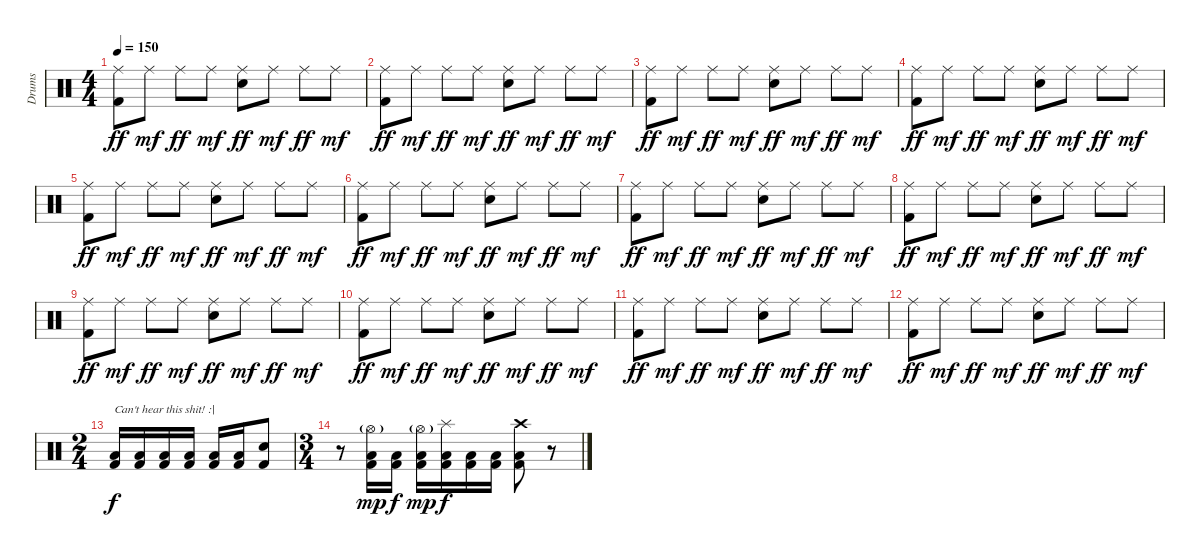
\track ("Drums" "Drums") {instrument percussion}
\staff {score}
\articulation defaults
\ts (4 4)
\tempo 150
\clef neutral
\ks c
("Ride (middle)" "Kick (hit) 2").8{dy ff} "Ride (middle)".8{dy mf} "Ride (middle)".8{dy ff} "Ride (middle)".8{dy mf} ("Ride (middle)" "Electric Snare (hit)").8{dy ff} "Ride (middle)".8{dy mf} "Ride (middle)".8{dy ff} "Ride (middle)".8{dy mf} |
("Ride (middle)" "Kick (hit) 2").8{dy ff} "Ride (middle)".8{dy mf} "Ride (middle)".8{dy ff} "Ride (middle)".8{dy mf} ("Ride (middle)" "Electric Snare (hit)").8{dy ff} "Ride (middle)".8{dy mf} "Ride (middle)".8{dy ff} "Ride (middle)".8{dy mf} |
("Ride (middle)" "Kick (hit) 2").8{dy ff} "Ride (middle)".8{dy mf} "Ride (middle)".8{dy ff} "Ride (middle)".8{dy mf} ("Ride (middle)" "Electric Snare (hit)").8{dy ff} "Ride (middle)".8{dy mf} "Ride (middle)".8{dy ff} "Ride (middle)".8{dy mf} |
("Ride (middle)" "Kick (hit) 2").8{dy ff} "Ride (middle)".8{dy mf} "Ride (middle)".8{dy ff} "Ride (middle)".8{dy mf} ("Ride (middle)" "Electric Snare (hit)").8{dy ff} "Ride (middle)".8{dy mf} "Ride (middle)".8{dy ff} "Ride (middle)".8{dy mf} |
("Ride (middle)" "Kick (hit) 2").8{dy ff} "Ride (middle)".8{dy mf} "Ride (middle)".8{dy ff} "Ride (middle)".8{dy mf} ("Ride (middle)" "Electric Snare (hit)").8{dy ff} "Ride (middle)".8{dy mf} "Ride (middle)".8{dy ff} "Ride (middle)".8{dy mf} |
("Ride (middle)" "Kick (hit) 2").8{dy ff} "Ride (middle)".8{dy mf} "Ride (middle)".8{dy ff} "Ride (middle)".8{dy mf} ("Ride (middle)" "Electric Snare (hit)").8{dy ff} "Ride (middle)".8{dy mf} "Ride (middle)".8{dy ff} "Ride (middle)".8{dy mf} |
("Ride (middle)" "Kick (hit) 2").8{dy ff} "Ride (middle)".8{dy mf} "Ride (middle)".8{dy ff} "Ride (middle)".8{dy mf} ("Ride (middle)" "Electric Snare (hit)").8{dy ff} "Ride (middle)".8{dy mf} "Ride (middle)".8{dy ff} "Ride (middle)".8{dy mf} |
("Ride (middle)" "Kick (hit) 2").8{dy ff} "Ride (middle)".8{dy mf} "Ride (middle)".8{dy ff} "Ride (middle)".8{dy mf} ("Ride (middle)" "Electric Snare (hit)").8{dy ff} "Ride (middle)".8{dy mf} "Ride (middle)".8{dy ff} "Ride (middle)".8{dy mf} |
("Ride (middle)" "Kick (hit) 2").8{dy ff} "Ride (middle)".8{dy mf} "Ride (middle)".8{dy ff} "Ride (middle)".8{dy mf} ("Ride (middle)" "Electric Snare (hit)").8{dy ff} "Ride (middle)".8{dy mf} "Ride (middle)".8{dy ff} "Ride (middle)".8{dy mf} |
("Ride (middle)" "Kick (hit) 2").8{dy ff} "Ride (middle)".8{dy mf} "Ride (middle)".8{dy ff} "Ride (middle)".8{dy mf} ("Ride (middle)" "Electric Snare (hit)").8{dy ff} "Ride (middle)".8{dy mf} "Ride (middle)".8{dy ff} "Ride (middle)".8{dy mf} |
("Ride (middle)" "Kick (hit) 2").8{dy ff} "Ride (middle)".8{dy mf} "Ride (middle)".8{dy ff} "Ride (middle)".8{dy mf} ("Ride (middle)" "Electric Snare (hit)").8{dy ff} "Ride (middle)".8{dy mf} "Ride (middle)".8{dy ff} "Ride (middle)".8{dy mf} |
("Ride (middle)" "Kick (hit) 2").8{dy ff} "Ride (middle)".8{dy mf} "Ride (middle)".8{dy ff} "Ride (middle)".8{dy mf} ("Ride (middle)" "Electric Snare (hit)").8{dy ff} "Ride (middle)".8{dy mf} "Ride (middle)".8{dy ff} "Ride (middle)".8{dy mf} |
\ts (2 4)
("Low Floor Tom (hit)" "Kick (hit) 2").16{txt "Can't hear this shit! :|" dy f} ("Low Floor Tom (hit)" "Kick (hit) 2").16 ("Low Floor Tom (hit)" "Kick (hit) 2").16 ("Low Floor Tom (hit)" "Kick (hit) 2").16 ("Low Floor Tom (hit)" "Kick (hit) 2").16 ("Low Floor Tom (hit)" "Kick (hit) 2").16 ("Electric Snare (hit)" "Kick (hit) 2").8 |
\ts (3 4)
r.8 ("Hi-Hat (open)"{g} "Low Floor Tom (hit)" "Kick (hit) 2").16{dy mp} ("Low Floor Tom (hit)" "Kick (hit) 2").16{dy f} ("Hi-Hat (open)"{g} "Low Floor Tom (hit)" "Kick (hit) 2").16{dy mp} ("Splash (hit)" "Low Floor Tom (hit)" "Kick (hit) 2").16{dy f} ("Low Floor Tom (hit)" "Kick (hit) 2").16 ("Low Floor Tom (hit)" "Kick (hit) 2").16 ("Crash high (hit)" "Low Floor Tom (hit)" "Kick (hit) 2").8 r.8
